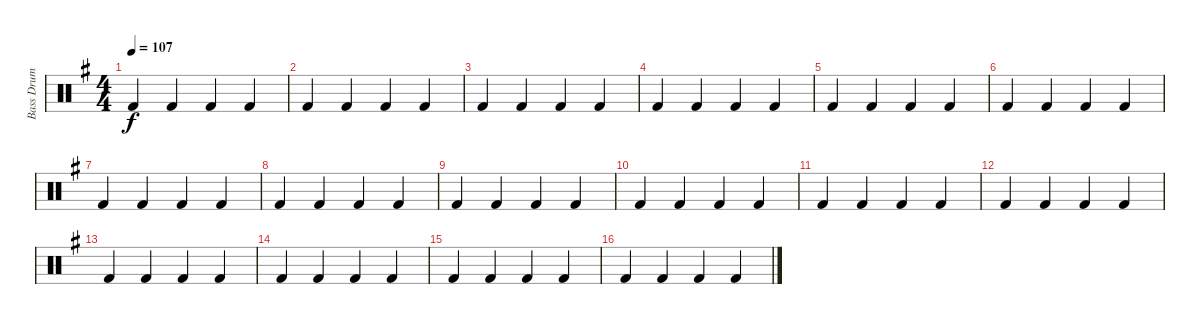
\track ("Bass Drum" "Bass Drum") {instrument percussion}
\staff {score}
\articulation defaults
\ts (4 4)
\tempo 107
\clef neutral
\ks g "Kick (hit) 2".4{dy f} "Kick (hit) 2".4 "Kick (hit) 2".4 "Kick (hit) 2".4
|
"Kick (hit) 2".4 "Kick (hit) 2".4 "Kick (hit) 2".4 "Kick (hit) 2".4 |
"Kick (hit) 2".4 "Kick (hit) 2".4 "Kick (hit) 2".4 "Kick (hit) 2".4 |
"Kick (hit) 2".4 "Kick (hit) 2".4 "Kick (hit) 2".4 "Kick (hit) 2".4 |
"Kick (hit) 2".4 "Kick (hit) 2".4 "Kick (hit) 2".4 "Kick (hit) 2".4 |
"Kick (hit) 2".4 "Kick (hit) 2".4 "Kick (hit) 2".4 "Kick (hit) 2".4 |
"Kick (hit) 2".4 "Kick (hit) 2".4 "Kick (hit) 2".4 "Kick (hit) 2".4 |
"Kick (hit) 2".4 "Kick (hit) 2".4 "Kick (hit) 2".4 "Kick (hit) 2".4 |
"Kick (hit) 2".4 "Kick (hit) 2".4 "Kick (hit) 2".4 "Kick (hit) 2".4 |
"Kick (hit) 2".4 "Kick (hit) 2".4 "Kick (hit) 2".4 "Kick (hit) 2".4 |
"Kick (hit) 2".4 "Kick (hit) 2".4 "Kick (hit) 2".4 "Kick (hit) 2".4 |
"Kick (hit) 2".4 "Kick (hit) 2".4 "Kick (hit) 2".4 "Kick (hit) 2".4 |
"Kick (hit) 2".4 "Kick (hit) 2".4 "Kick (hit) 2".4 "Kick (hit) 2".4 |
"Kick (hit) 2".4 "Kick (hit) 2".4 "Kick (hit) 2".4 "Kick (hit) 2".4 |
"Kick (hit) 2".4 "Kick (hit) 2".4 "Kick (hit) 2".4 "Kick (hit) 2".4 |
"Kick (hit) 2".4 "Kick (hit) 2".4 "Kick (hit) 2".4 "Kick (hit) 2".4
